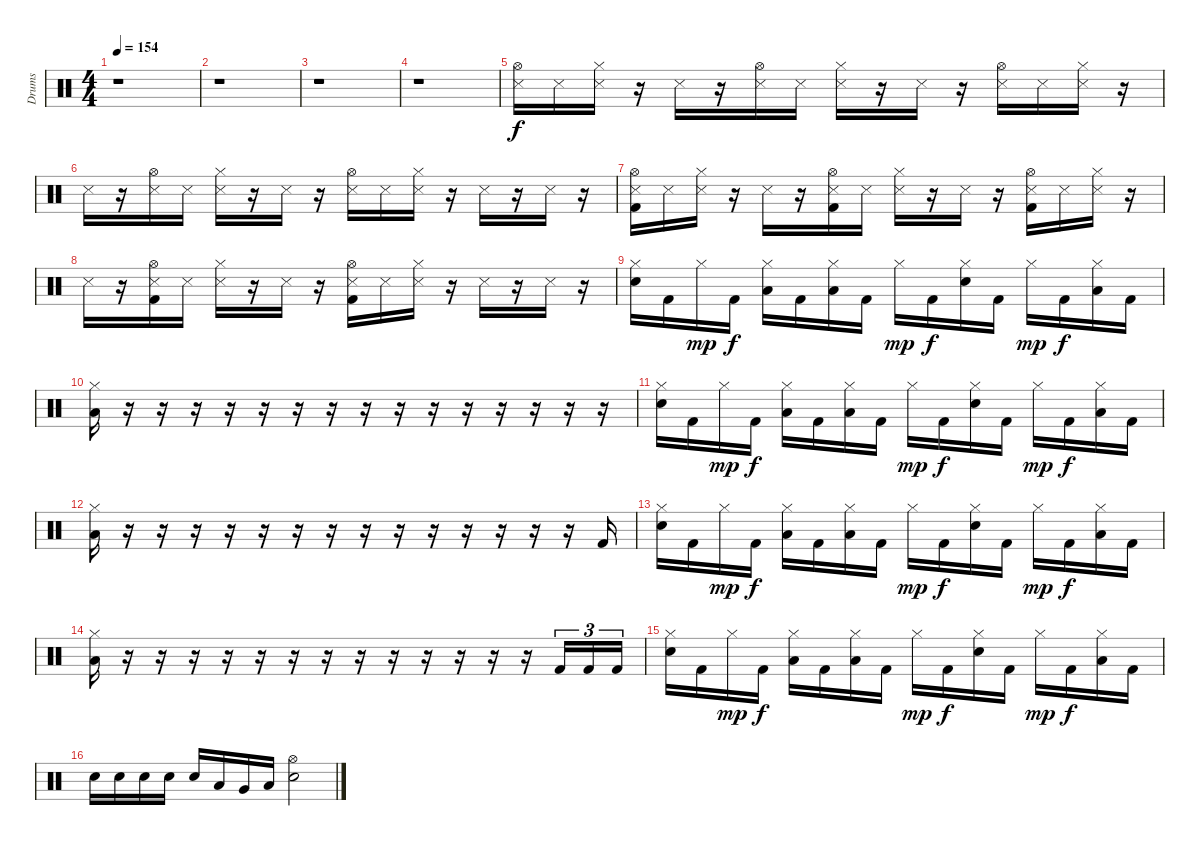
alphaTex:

\track ("Drums" "Drums") {instrument percussion}
\staff {score}
\articulation defaults
\ts (4 4)
\tempo 154
\clef neutral
\ks c
r.1{dy f} |
r.1 |
r.1 |
r.1 |
("Hi-Hat (open)" "Snare (side stick) 3").16 "Snare (side stick) 3".16 ("Hi-Hat (closed)" "Snare (side stick) 3").16 r.16 "Snare (side stick) 3".16 r.16 ("Hi-Hat (open)" "Snare (side stick) 3").16 "Snare (side stick) 3".16 ("Hi-Hat (closed)" "Snare (side stick) 3").16 r.16 "Snare (side stick) 3".16 r.16 ("Hi-Hat (open)" "Snare (side stick) 3").16 "Snare (side stick) 3".16 ("Hi-Hat (closed)" "Snare (side stick) 3").16 r.16 |
"Snare (side stick) 3".16 r.16 ("Hi-Hat (open)" "Snare (side stick) 3").16 "Snare (side stick) 3".16 ("Hi-Hat (closed)" "Snare (side stick) 3").16 r.16 "Snare (side stick) 3".16 r.16 ("Hi-Hat (open)" "Snare (side stick) 3").16 "Snare (side stick) 3".16 ("Hi-Hat (closed)" "Snare (side stick) 3").16 r.16 "Snare (side stick) 3".16 r.16 "Snare (side stick) 3".16 r.16 |
("Hi-Hat (open)" "Snare (side stick) 3" "Kick (hit) 2").16 "Snare (side stick) 3".16 ("Hi-Hat (closed)" "Snare (side stick) 3").16 r.16 "Snare (side stick) 3".16 r.16 ("Hi-Hat (open)" "Snare (side stick) 3" "Kick (hit) 2").16 "Snare (side stick) 3".16 ("Hi-Hat (closed)" "Snare (side stick) 3").16 r.16 "Snare (side stick) 3".16 r.16 ("Hi-Hat (open)" "Snare (side stick) 3" "Kick (hit) 2").16 "Snare (side stick) 3".16 ("Hi-Hat (closed)" "Snare (side stick) 3").16 r.16 |
"Snare (side stick) 3".16 r.16 ("Hi-Hat (open)" "Snare (side stick) 3" "Kick (hit) 2").16 "Snare (side stick) 3".16 ("Hi-Hat (closed)" "Snare (side stick) 3").16 r.16 "Snare (side stick) 3".16 r.16 ("Hi-Hat (open)" "Snare (side stick) 3" "Kick (hit) 2").16 "Snare (side stick) 3".16 ("Hi-Hat (closed)" "Snare (side stick) 3").16 r.16 "Snare (side stick) 3".16 r.16 "Snare (side stick) 3".16 r.16 |
("Hi-Hat (closed)" "Electric Snare (hit)").16 "Kick (hit) 2".16 "Hi-Hat (closed)".16{dy mp} "Kick (hit) 2".16{dy f} ("Hi-Hat (closed)" "Low Tom (hit)").16 "Kick (hit) 2".16 ("Hi-Hat (closed)" "Low Tom (hit)").16 "Kick (hit) 2".16 "Hi-Hat (closed)".16{dy mp} "Kick (hit) 2".16{dy f} ("Hi-Hat (closed)" "Electric Snare (hit)").16 "Kick (hit) 2".16 "Hi-Hat (closed)".16{dy mp} "Kick (hit) 2".16{dy f} ("Hi-Hat (closed)" "Low Tom (hit)").16 "Kick (hit) 2".16 |
("Hi-Hat (closed)" "Low Tom (hit)").16 r.16 r.16 r.16 r.16 r.16 r.16 r.16 r.16 r.16 r.16 r.16 r.16 r.16 r.16 r.16 |
("Hi-Hat (closed)" "Electric Snare (hit)").16 "Kick (hit) 2".16 "Hi-Hat (closed)".16{dy mp} "Kick (hit) 2".16{dy f} ("Hi-Hat (closed)" "Low Tom (hit)").16 "Kick (hit) 2".16 ("Hi-Hat (closed)" "Low Tom (hit)").16 "Kick (hit) 2".16 "Hi-Hat (closed)".16{dy mp} "Kick (hit) 2".16{dy f} ("Hi-Hat (closed)" "Electric Snare (hit)").16 "Kick (hit) 2".16 "Hi-Hat (closed)".16{dy mp} "Kick (hit) 2".16{dy f} ("Hi-Hat (closed)" "Low Tom (hit)").16 "Kick (hit) 2".16 |
("Hi-Hat (closed)" "Low Tom (hit)").16 r.16 r.16 r.16 r.16 r.16 r.16 r.16 r.16 r.16 r.16 r.16 r.16 r.16 r.16 "Kick (hit) 2".16 |
("Hi-Hat (closed)" "Electric Snare (hit)").16 "Kick (hit) 2".16 "Hi-Hat (closed)".16{dy mp} "Kick (hit) 2".16{dy f} ("Hi-Hat (closed)" "Low Tom (hit)").16 "Kick (hit) 2".16 ("Hi-Hat (closed)" "Low Tom (hit)").16 "Kick (hit) 2".16 "Hi-Hat (closed)".16{dy mp} "Kick (hit) 2".16{dy f} ("Hi-Hat (closed)" "Electric Snare (hit)").16 "Kick (hit) 2".16 "Hi-Hat (closed)".16{dy mp} "Kick (hit) 2".16{dy f} ("Hi-Hat (closed)" "Low Tom (hit)").16 "Kick (hit) 2".16 |
("Hi-Hat (closed)" "Low Tom (hit)").16 r.16 r.16 r.16 r.16 r.16 r.16 r.16 r.16 r.16 r.16 r.16 r.16 r.16 "Kick (hit) 2".16{tu (3 2)} "Kick (hit) 2".16{tu (3 2)} "Kick (hit) 2".16{tu (3 2)} |
("Hi-Hat (closed)" "Electric Snare (hit)").16 "Kick (hit) 2".16 "Hi-Hat (closed)".16{dy mp} "Kick (hit) 2".16{dy f} ("Hi-Hat (closed)" "Low Tom (hit)").16 "Kick (hit) 2".16 ("Hi-Hat (closed)" "Low Tom (hit)").16 "Kick (hit) 2".16 "Hi-Hat (closed)".16{dy mp} "Kick (hit) 2".16{dy f} ("Hi-Hat (closed)" "Electric Snare (hit)").16 "Kick (hit) 2".16 "Hi-Hat (closed)".16{dy mp} "Kick (hit) 2".16{dy f} ("Hi-Hat (closed)" "Low Tom (hit)").16 "Kick (hit) 2".16 |
"Electric Snare (hit)".16 "Electric Snare (hit)".16 "Electric Snare (hit)".16 "Electric Snare (hit)".16 "Electric Snare (hit)".16 "Low Tom (hit)".16 "Very Low Tom (hit)".16 "Low Floor Tom (hit)".16 ("Hi-Hat (open)" "Electric Snare (hit)").2
